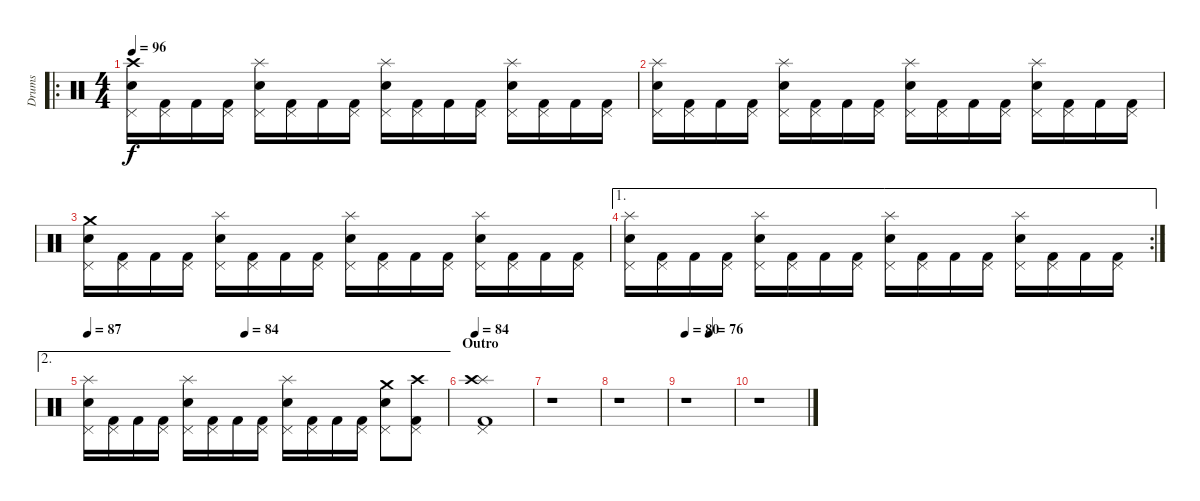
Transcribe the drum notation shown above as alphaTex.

\track ("Drums" "Drums") {instrument percussion}
\staff {score}
\articulation defaults
\ro
\ts (4 4)
\tempo 96
\clef neutral
\ks c
("Snare (hit) 2" "Pedal Hi-Hat (hit)" "Crash high (hit)").16{dy f} ("Kick (hit) 2" "Pedal Hi-Hat (hit)").16 "Kick (hit) 2".16 ("Kick (hit) 2" "Pedal Hi-Hat (hit)").16 ("Snare (hit) 2" "Pedal Hi-Hat (hit)" "Splash (hit)").16 ("Kick (hit) 2" "Pedal Hi-Hat (hit)").16 "Kick (hit) 2".16 ("Kick (hit) 2" "Pedal Hi-Hat (hit)").16 ("Snare (hit) 2" "Pedal Hi-Hat (hit)" "Splash (hit)").16 ("Kick (hit) 2" "Pedal Hi-Hat (hit)").16 "Kick (hit) 2".16 ("Kick (hit) 2" "Pedal Hi-Hat (hit)").16 ("Snare (hit) 2" "Pedal Hi-Hat (hit)" "Splash (hit)").16 ("Kick (hit) 2" "Pedal Hi-Hat (hit)").16 "Kick (hit) 2".16 ("Kick (hit) 2" "Pedal Hi-Hat (hit)").16 |
("Snare (hit) 2" "Pedal Hi-Hat (hit)" "Splash (hit)").16 ("Kick (hit) 2" "Pedal Hi-Hat (hit)").16 "Kick (hit) 2".16 ("Kick (hit) 2" "Pedal Hi-Hat (hit)").16 ("Snare (hit) 2" "Pedal Hi-Hat (hit)" "Splash (hit)").16 ("Kick (hit) 2" "Pedal Hi-Hat (hit)").16 "Kick (hit) 2".16 ("Kick (hit) 2" "Pedal Hi-Hat (hit)").16 ("Snare (hit) 2" "Pedal Hi-Hat (hit)" "Splash (hit)").16 ("Kick (hit) 2" "Pedal Hi-Hat (hit)").16 "Kick (hit) 2".16 ("Kick (hit) 2" "Pedal Hi-Hat (hit)").16 ("Snare (hit) 2" "Pedal Hi-Hat (hit)" "Splash (hit)").16 ("Kick (hit) 2" "Pedal Hi-Hat (hit)").16 "Kick (hit) 2".16 ("Kick (hit) 2" "Pedal Hi-Hat (hit)").16 |
("Snare (hit) 2" "Pedal Hi-Hat (hit)" "Crash medium (hit)").16 ("Kick (hit) 2" "Pedal Hi-Hat (hit)").16 "Kick (hit) 2".16 ("Kick (hit) 2" "Pedal Hi-Hat (hit)").16 ("Snare (hit) 2" "Pedal Hi-Hat (hit)" "Splash (hit)").16 ("Kick (hit) 2" "Pedal Hi-Hat (hit)").16 "Kick (hit) 2".16 ("Kick (hit) 2" "Pedal Hi-Hat (hit)").16 ("Snare (hit) 2" "Pedal Hi-Hat (hit)" "Splash (hit)").16 ("Kick (hit) 2" "Pedal Hi-Hat (hit)").16 "Kick (hit) 2".16 ("Kick (hit) 2" "Pedal Hi-Hat (hit)").16 ("Snare (hit) 2" "Pedal Hi-Hat (hit)" "Splash (hit)").16 ("Kick (hit) 2" "Pedal Hi-Hat (hit)").16 "Kick (hit) 2".16 ("Kick (hit) 2" "Pedal Hi-Hat (hit)").16 |
\ae 1
\rc 2
("Snare (hit) 2" "Pedal Hi-Hat (hit)" "Splash (hit)").16 ("Kick (hit) 2" "Pedal Hi-Hat (hit)").16 "Kick (hit) 2".16 ("Kick (hit) 2" "Pedal Hi-Hat (hit)").16 ("Snare (hit) 2" "Pedal Hi-Hat (hit)" "Splash (hit)").16 ("Kick (hit) 2" "Pedal Hi-Hat (hit)").16 "Kick (hit) 2".16 ("Kick (hit) 2" "Pedal Hi-Hat (hit)").16 ("Snare (hit) 2" "Pedal Hi-Hat (hit)" "Splash (hit)").16 ("Kick (hit) 2" "Pedal Hi-Hat (hit)").16 "Kick (hit) 2".16 ("Kick (hit) 2" "Pedal Hi-Hat (hit)").16 ("Snare (hit) 2" "Pedal Hi-Hat (hit)" "Splash (hit)").16 ("Kick (hit) 2" "Pedal Hi-Hat (hit)").16 "Kick (hit) 2".16 ("Kick (hit) 2" "Pedal Hi-Hat (hit)").16 |
\ae 2
\tempo 87
\tempo (84 0.4375)
("Snare (hit) 2" "Pedal Hi-Hat (hit)" "Splash (hit)").16 ("Kick (hit) 2" "Pedal Hi-Hat (hit)").16 "Kick (hit) 2".16 ("Kick (hit) 2" "Pedal Hi-Hat (hit)").16 ("Snare (hit) 2" "Pedal Hi-Hat (hit)" "Splash (hit)").16 ("Kick (hit) 2" "Pedal Hi-Hat (hit)").16 "Kick (hit) 2".16 ("Kick (hit) 2" "Pedal Hi-Hat (hit)").16 ("Snare (hit) 2" "Pedal Hi-Hat (hit)" "Splash (hit)").16 ("Kick (hit) 2" "Pedal Hi-Hat (hit)").16 "Kick (hit) 2".16 ("Kick (hit) 2" "Pedal Hi-Hat (hit)").16 ("Snare (hit) 2" "Pedal Hi-Hat (hit)" "Crash medium (hit)").8 ("Kick (hit) 2" "Pedal Hi-Hat (hit)" "Crash high (hit)").8 |
\section ("" "Outro")
\tempo 84
("Kick (hit) 2" "Pedal Hi-Hat (hit)" "Splash (hit)" "Crash high (hit)").1 |
r.1 |
r.1 |
\tempo 80
\tempo (76 0.5)
r.1 |
r.1
